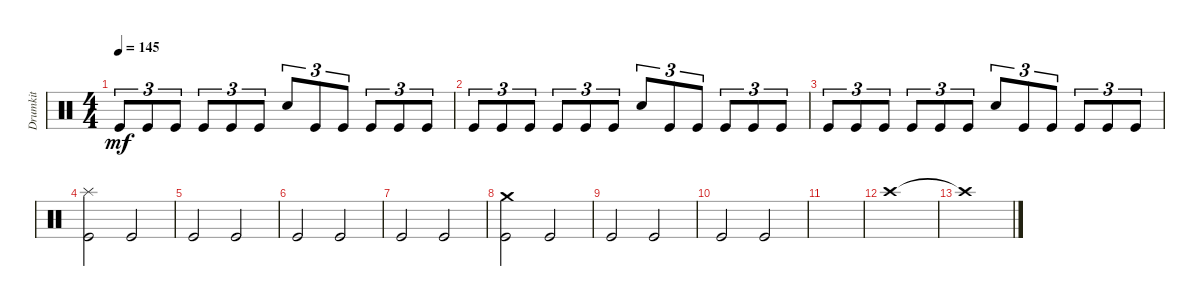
\track ("Drumkit" "Drumkit") {instrument percussion}
\staff {score}
\articulation defaults
\ts (4 4)
\tempo 145
\clef neutral
\ks c "Kick (hit)".8{tu (3 2) dy mf} "Kick (hit)".8{tu (3 2)} "Kick (hit)".8{tu (3 2)} "Kick (hit)".8{tu (3 2)} "Kick (hit)".8{tu (3 2)} "Kick (hit)".8{tu (3 2)} "Snare (hit) 2".8{tu (3 2)} "Kick (hit)".8{tu (3 2)} "Kick (hit)".8{tu (3 2)} "Kick (hit)".8{tu (3 2)} "Kick (hit)".8{tu (3 2)} "Kick (hit)".8{tu (3 2)}
|
"Kick (hit)".8{tu (3 2)} "Kick (hit)".8{tu (3 2)} "Kick (hit)".8{tu (3 2)} "Kick (hit)".8{tu (3 2)} "Kick (hit)".8{tu (3 2)} "Kick (hit)".8{tu (3 2)} "Snare (hit) 2".8{tu (3 2)} "Kick (hit)".8{tu (3 2)} "Kick (hit)".8{tu (3 2)} "Kick (hit)".8{tu (3 2)} "Kick (hit)".8{tu (3 2)} "Kick (hit)".8{tu (3 2)} |
"Kick (hit)".8{tu (3 2)} "Kick (hit)".8{tu (3 2)} "Kick (hit)".8{tu (3 2)} "Kick (hit)".8{tu (3 2)} "Kick (hit)".8{tu (3 2)} "Kick (hit)".8{tu (3 2)} "Snare (hit) 2".8{tu (3 2)} "Kick (hit)".8{tu (3 2)} "Kick (hit)".8{tu (3 2)} "Kick (hit)".8{tu (3 2)} "Kick (hit)".8{tu (3 2)} "Kick (hit)".8{tu (3 2)} |
("Kick (hit)" "Splash (hit)").2 "Kick (hit)".2 |
"Kick (hit)".2 "Kick (hit)".2 |
"Kick (hit)".2 "Kick (hit)".2 |
"Kick (hit)".2 "Kick (hit)".2 |
("Kick (hit)" "Crash medium (hit)").2 "Kick (hit)".2 |
"Kick (hit)".2 "Kick (hit)".2 |
"Kick (hit)".2 "Kick (hit)".2 |
|
"Crash high (hit)".1 |
"Crash high (hit)"{t}.1
